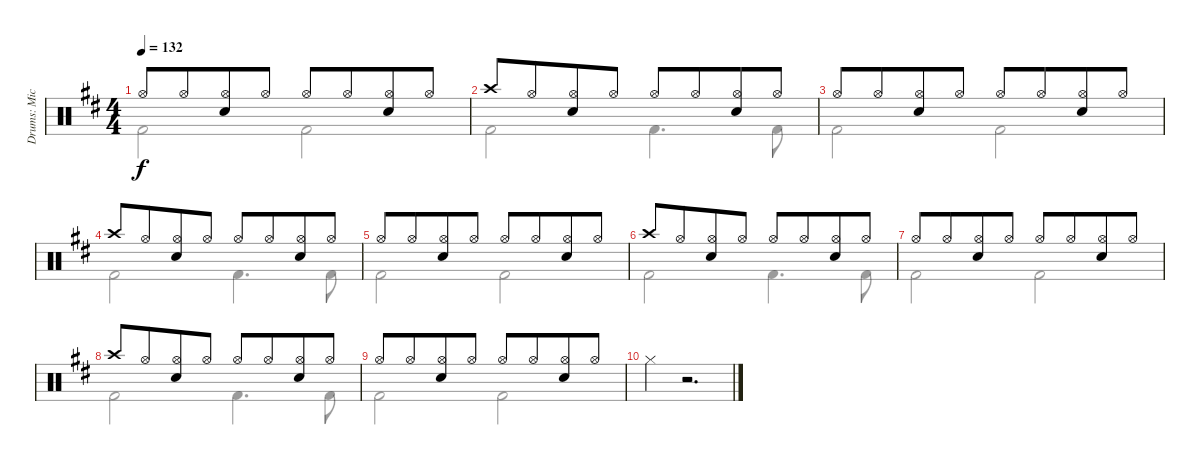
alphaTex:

\track ("Drums: Mick" "Drums: Mic") {instrument percussion}
\staff {score}
\articulation defaults
\voice
\ts (4 4)
\tempo 132
\clef neutral
\ks d "Hi-Hat (open)".8{dy f} "Hi-Hat (open)".8{beam merge}
("Hi-Hat (open)" "Snare (hit) 2").8 "Hi-Hat (open)".8 "Hi-Hat (open)".8 "Hi-Hat (open)".8{beam merge} ("Hi-Hat (open)" "Snare (hit) 2").8 "Hi-Hat (open)".8 |
"Crash high (hit)".8 "Hi-Hat (open)".8{beam merge} ("Hi-Hat (open)" "Snare (hit) 2").8 "Hi-Hat (open)".8 "Hi-Hat (open)".8 "Hi-Hat (open)".8{beam merge} ("Hi-Hat (open)" "Snare (hit) 2").8 "Hi-Hat (open)".8 |
"Hi-Hat (open)".8 "Hi-Hat (open)".8{beam merge} ("Hi-Hat (open)" "Snare (hit) 2").8 "Hi-Hat (open)".8 "Hi-Hat (open)".8 "Hi-Hat (open)".8{beam merge} ("Hi-Hat (open)" "Snare (hit) 2").8 "Hi-Hat (open)".8 |
"Crash high (hit)".8 "Hi-Hat (open)".8{beam merge} ("Hi-Hat (open)" "Snare (hit) 2").8 "Hi-Hat (open)".8 "Hi-Hat (open)".8 "Hi-Hat (open)".8{beam merge} ("Hi-Hat (open)" "Snare (hit) 2").8 "Hi-Hat (open)".8 |
"Hi-Hat (open)".8 "Hi-Hat (open)".8{beam merge} ("Hi-Hat (open)" "Snare (hit) 2").8 "Hi-Hat (open)".8 "Hi-Hat (open)".8 "Hi-Hat (open)".8{beam merge} ("Hi-Hat (open)" "Snare (hit) 2").8 "Hi-Hat (open)".8 |
"Crash high (hit)".8 "Hi-Hat (open)".8{beam merge} ("Hi-Hat (open)" "Snare (hit) 2").8 "Hi-Hat (open)".8 "Hi-Hat (open)".8 "Hi-Hat (open)".8{beam merge} ("Hi-Hat (open)" "Snare (hit) 2").8 "Hi-Hat (open)".8 |
"Hi-Hat (open)".8 "Hi-Hat (open)".8{beam merge} ("Hi-Hat (open)" "Snare (hit) 2").8 "Hi-Hat (open)".8 "Hi-Hat (open)".8 "Hi-Hat (open)".8{beam merge} ("Hi-Hat (open)" "Snare (hit) 2").8 "Hi-Hat (open)".8 |
"Crash high (hit)".8 "Hi-Hat (open)".8{beam merge} ("Hi-Hat (open)" "Snare (hit) 2").8 "Hi-Hat (open)".8 "Hi-Hat (open)".8 "Hi-Hat (open)".8{beam merge} ("Hi-Hat (open)" "Snare (hit) 2").8 "Hi-Hat (open)".8 |
"Hi-Hat (open)".8 "Hi-Hat (open)".8{beam merge} ("Hi-Hat (open)" "Snare (hit) 2").8 "Hi-Hat (open)".8 "Hi-Hat (open)".8 "Hi-Hat (open)".8{beam merge} ("Hi-Hat (open)" "Snare (hit) 2").8 "Hi-Hat (open)".8 |
"Hi-Hat (closed)".4 r.2{d}
\voice
\clef neutral
\ottava regular
\simile none
\ks d "Kick (hit) 2".2{dy f} "Kick (hit) 2".2
|
"Kick (hit) 2".2 "Kick (hit) 2".4{d} "Kick (hit) 2".8 |
"Kick (hit) 2".2 "Kick (hit) 2".2 |
"Kick (hit) 2".2 "Kick (hit) 2".4{d} "Kick (hit) 2".8 |
"Kick (hit) 2".2 "Kick (hit) 2".2 |
"Kick (hit) 2".2 "Kick (hit) 2".4{d} "Kick (hit) 2".8 |
"Kick (hit) 2".2 "Kick (hit) 2".2 |
"Kick (hit) 2".2 "Kick (hit) 2".4{d} "Kick (hit) 2".8 |
"Kick (hit) 2".2 "Kick (hit) 2".2 |
